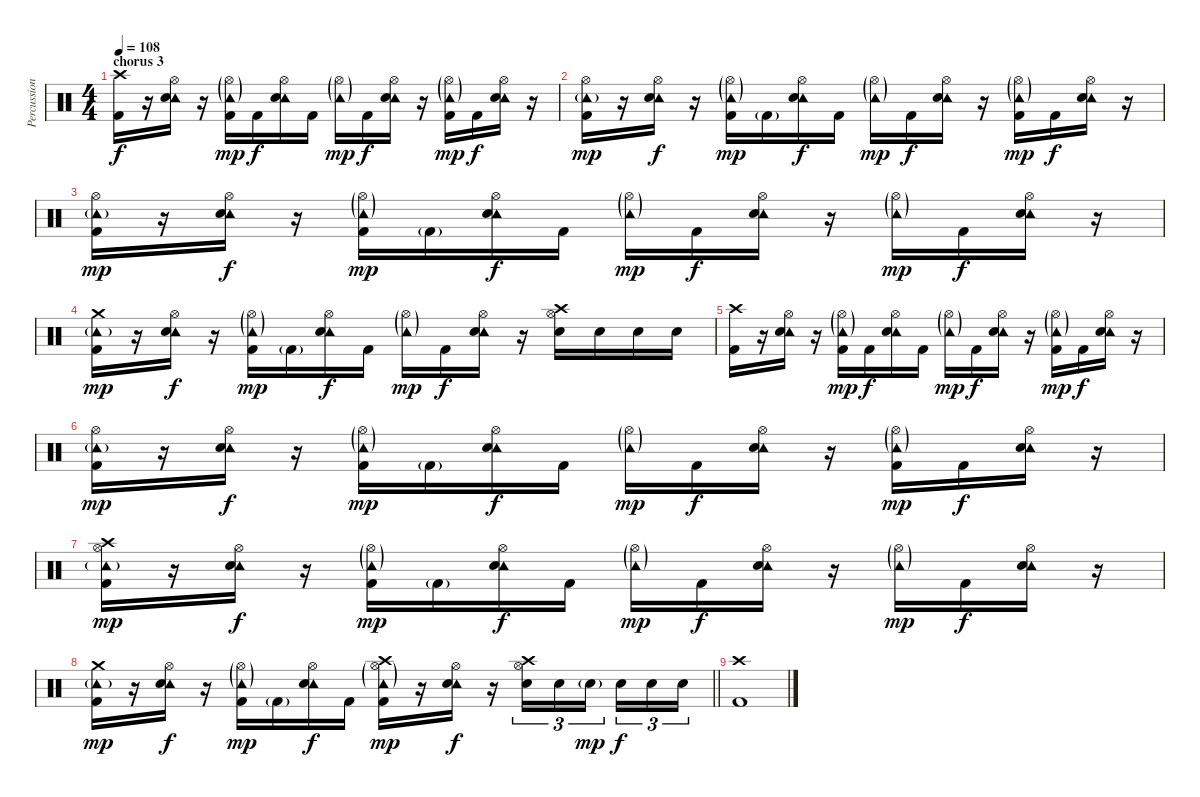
\track ("Percussion" "Percussion") {instrument percussion}
\staff {score}
\articulation defaults
\ts (4 4)
\section ("" "chorus 3")
\tempo 108
\clef neutral
\ks c
("Crash high (hit)" "Kick (hit) 2").16{dy f} r.16 ("Tambourine (hit)" "Hi-Hat (open)" "Electric Snare (hit)").16 r.16 ("Tambourine (hit)"{g} "Hi-Hat (open)"{g} "Kick (hit) 2").16{dy mp} "Kick (hit) 2".16{dy f} ("Tambourine (hit)" "Hi-Hat (open)" "Electric Snare (hit)").16 "Kick (hit) 2".16 ("Tambourine (hit)"{g} "Hi-Hat (open)"{g}).16{dy mp} "Kick (hit) 2".16{dy f} ("Tambourine (hit)" "Hi-Hat (open)" "Electric Snare (hit)").16 r.16 ("Tambourine (hit)"{g} "Hi-Hat (open)"{g} "Kick (hit) 2").16{dy mp} "Kick (hit) 2".16{dy f} ("Tambourine (hit)" "Hi-Hat (open)" "Electric Snare (hit)").16 r.16 |
("Tambourine (hit)"{g} "Hi-Hat (open)" "Kick (hit) 2").16{dy mp} r.16 ("Tambourine (hit)" "Hi-Hat (open)" "Electric Snare (hit)").16{dy f} r.16 ("Tambourine (hit)"{g} "Hi-Hat (open)"{g} "Kick (hit) 2").16{dy mp} "Kick (hit) 2"{g}.16 ("Tambourine (hit)" "Hi-Hat (open)" "Electric Snare (hit)").16{dy f} "Kick (hit) 2".16 ("Tambourine (hit)"{g} "Hi-Hat (open)"{g}).16{dy mp} "Kick (hit) 2".16{dy f} ("Tambourine (hit)" "Hi-Hat (open)" "Electric Snare (hit)").16 r.16 ("Tambourine (hit)"{g} "Hi-Hat (open)"{g} "Kick (hit) 2").16{dy mp} "Kick (hit) 2".16{dy f} ("Tambourine (hit)" "Hi-Hat (open)" "Electric Snare (hit)").16 r.16 |
("Tambourine (hit)"{g} "Hi-Hat (open)" "Kick (hit) 2").16{dy mp} r.16 ("Tambourine (hit)" "Hi-Hat (open)" "Electric Snare (hit)").16{dy f} r.16 ("Tambourine (hit)"{g} "Hi-Hat (open)"{g} "Kick (hit) 2").16{dy mp} "Kick (hit) 2"{g}.16 ("Tambourine (hit)" "Hi-Hat (open)" "Electric Snare (hit)").16{dy f} "Kick (hit) 2".16 ("Tambourine (hit)"{g} "Hi-Hat (open)"{g}).16{dy mp} "Kick (hit) 2".16{dy f} ("Tambourine (hit)" "Hi-Hat (open)" "Electric Snare (hit)").16 r.16 ("Tambourine (hit)"{g} "Hi-Hat (open)"{g}).16{dy mp} "Kick (hit) 2".16{dy f} ("Tambourine (hit)" "Hi-Hat (open)" "Electric Snare (hit)").16 r.16 |
("Crash medium (hit)" "Tambourine (hit)"{g} "Kick (hit) 2").16{dy mp} r.16 ("Tambourine (hit)" "Hi-Hat (open)" "Electric Snare (hit)").16{dy f} r.16 ("Tambourine (hit)"{g} "Hi-Hat (open)"{g} "Kick (hit) 2").16{dy mp} "Kick (hit) 2"{g}.16 ("Tambourine (hit)" "Hi-Hat (open)" "Electric Snare (hit)").16{dy f} "Kick (hit) 2".16 ("Tambourine (hit)"{g} "Hi-Hat (open)"{g}).16{dy mp} "Kick (hit) 2".16{dy f} ("Tambourine (hit)" "Hi-Hat (open)" "Electric Snare (hit)").16 r.16 ("Crash high (hit)" "Hi-Hat (open)" "Electric Snare (hit)").16 "Electric Snare (hit)".16 "Electric Snare (hit)".16 "Electric Snare (hit)".16 |
("Crash high (hit)" "Kick (hit) 2").16 r.16 ("Tambourine (hit)" "Hi-Hat (open)" "Electric Snare (hit)").16 r.16 ("Tambourine (hit)"{g} "Hi-Hat (open)"{g} "Kick (hit) 2").16{dy mp} "Kick (hit) 2".16{dy f} ("Tambourine (hit)" "Hi-Hat (open)" "Electric Snare (hit)").16 "Kick (hit) 2".16 ("Tambourine (hit)"{g} "Hi-Hat (open)"{g}).16{dy mp} "Kick (hit) 2".16{dy f} ("Tambourine (hit)" "Hi-Hat (open)" "Electric Snare (hit)").16 r.16 ("Tambourine (hit)"{g} "Hi-Hat (open)"{g} "Kick (hit) 2").16{dy mp} "Kick (hit) 2".16{dy f} ("Tambourine (hit)" "Hi-Hat (open)" "Electric Snare (hit)").16 r.16 |
("Tambourine (hit)"{g} "Hi-Hat (open)" "Kick (hit) 2").16{dy mp} r.16 ("Tambourine (hit)" "Hi-Hat (open)" "Electric Snare (hit)").16{dy f} r.16 ("Tambourine (hit)"{g} "Hi-Hat (open)"{g} "Kick (hit) 2").16{dy mp} "Kick (hit) 2"{g}.16 ("Tambourine (hit)" "Hi-Hat (open)" "Electric Snare (hit)").16{dy f} "Kick (hit) 2".16 ("Tambourine (hit)"{g} "Hi-Hat (open)"{g}).16{dy mp} "Kick (hit) 2".16{dy f} ("Tambourine (hit)" "Hi-Hat (open)" "Electric Snare (hit)").16 r.16 ("Tambourine (hit)"{g} "Hi-Hat (open)"{g} "Kick (hit) 2").16{dy mp} "Kick (hit) 2".16{dy f} ("Tambourine (hit)" "Hi-Hat (open)" "Electric Snare (hit)").16 r.16 |
("Crash high (hit)" "Tambourine (hit)"{g} "Hi-Hat (open)" "Kick (hit) 2").16{dy mp} r.16 ("Tambourine (hit)" "Hi-Hat (open)" "Electric Snare (hit)").16{dy f} r.16 ("Tambourine (hit)"{g} "Hi-Hat (open)"{g} "Kick (hit) 2").16{dy mp} "Kick (hit) 2"{g}.16 ("Tambourine (hit)" "Hi-Hat (open)" "Electric Snare (hit)").16{dy f} "Kick (hit) 2".16 ("Tambourine (hit)"{g} "Hi-Hat (open)"{g}).16{dy mp} "Kick (hit) 2".16{dy f} ("Tambourine (hit)" "Hi-Hat (open)" "Electric Snare (hit)").16 r.16 ("Tambourine (hit)"{g} "Hi-Hat (open)"{g}).16{dy mp} "Kick (hit) 2".16{dy f} ("Tambourine (hit)" "Hi-Hat (open)" "Electric Snare (hit)").16 r.16 |
\barLineRight lightlight
("Crash medium (hit)" "Tambourine (hit)"{g} "Kick (hit) 2").16{dy mp} r.16 ("Tambourine (hit)" "Hi-Hat (open)" "Electric Snare (hit)").16{dy f} r.16 ("Tambourine (hit)"{g} "Hi-Hat (open)"{g} "Kick (hit) 2").16{dy mp} "Kick (hit) 2"{g}.16 ("Tambourine (hit)" "Hi-Hat (open)" "Electric Snare (hit)").16{dy f} "Kick (hit) 2".16 ("Crash high (hit)" "Tambourine (hit)"{g} "Hi-Hat (open)"{g} "Kick (hit) 2").16{dy mp} r.16 ("Tambourine (hit)" "Hi-Hat (open)" "Electric Snare (hit)").16{dy f} r.16 ("Crash high (hit)" "Hi-Hat (open)" "Electric Snare (hit)").16{tu (3 2)} "Electric Snare (hit)".16{tu (3 2)} "Electric Snare (hit)"{g}.16{tu (3 2) dy mp beam splitsecondary} "Electric Snare (hit)".16{tu (3 2) dy f} "Electric Snare (hit)".16{tu (3 2)} "Electric Snare (hit)".16{tu (3 2)} |
("Crash high (hit)" "Kick (hit) 2").1
